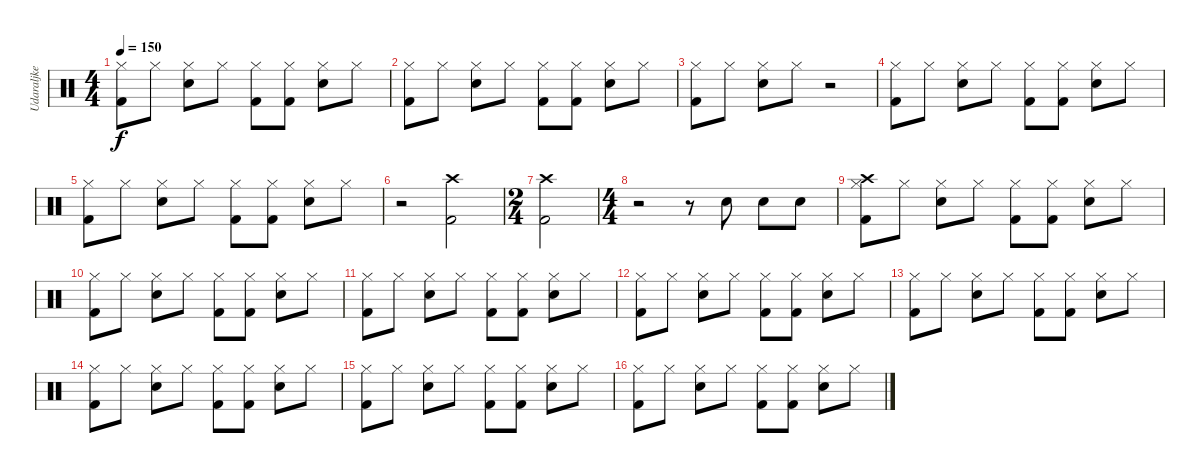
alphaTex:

\track ("Udaraljke" "Udaraljke") {instrument percussion}
\staff {score}
\articulation defaults
\ts (4 4)
\tempo 150
\clef neutral
\ks c
("Hi-Hat (closed)" "Kick (hit) 2").8{dy f} "Hi-Hat (closed)".8 ("Hi-Hat (closed)" "Snare (hit) 2").8 "Hi-Hat (closed)".8 ("Hi-Hat (closed)" "Kick (hit) 2").8 ("Hi-Hat (closed)" "Kick (hit) 2").8 ("Hi-Hat (closed)" "Snare (hit) 2").8 "Hi-Hat (closed)".8 |
("Hi-Hat (closed)" "Kick (hit) 2").8 "Hi-Hat (closed)".8 ("Hi-Hat (closed)" "Snare (hit) 2").8 "Hi-Hat (closed)".8 ("Hi-Hat (closed)" "Kick (hit) 2").8 ("Hi-Hat (closed)" "Kick (hit) 2").8 ("Hi-Hat (closed)" "Snare (hit) 2").8 "Hi-Hat (closed)".8 |
("Hi-Hat (closed)" "Kick (hit) 2").8 "Hi-Hat (closed)".8 ("Hi-Hat (closed)" "Snare (hit) 2").8 "Hi-Hat (closed)".8 r.2 |
("Hi-Hat (closed)" "Kick (hit) 2").8 "Hi-Hat (closed)".8 ("Hi-Hat (closed)" "Snare (hit) 2").8 "Hi-Hat (closed)".8 ("Hi-Hat (closed)" "Kick (hit) 2").8 ("Hi-Hat (closed)" "Kick (hit) 2").8 ("Hi-Hat (closed)" "Snare (hit) 2").8 "Hi-Hat (closed)".8 |
("Hi-Hat (closed)" "Kick (hit) 2").8 "Hi-Hat (closed)".8 ("Hi-Hat (closed)" "Snare (hit) 2").8 "Hi-Hat (closed)".8 ("Hi-Hat (closed)" "Kick (hit) 2").8 ("Hi-Hat (closed)" "Kick (hit) 2").8 ("Hi-Hat (closed)" "Snare (hit) 2").8 "Hi-Hat (closed)".8 |
r.2 ("Kick (hit) 2" "Crash high (hit)").2 |
\ts (2 4)
("Crash high (hit)" "Kick (hit) 2").2 |
\ts (4 4)
r.2 r.8 "Snare (hit) 2".8 "Snare (hit) 2".8 "Snare (hit) 2".8 |
("Crash high (hit)" "Kick (hit) 2" "Hi-Hat (closed)").8 "Hi-Hat (closed)".8 ("Snare (hit) 2" "Hi-Hat (closed)").8 "Hi-Hat (closed)".8 ("Kick (hit) 2" "Hi-Hat (closed)").8 ("Kick (hit) 2" "Hi-Hat (closed)").8 ("Snare (hit) 2" "Hi-Hat (closed)").8 "Hi-Hat (closed)".8 |
("Hi-Hat (closed)" "Kick (hit) 2").8 "Hi-Hat (closed)".8 ("Hi-Hat (closed)" "Snare (hit) 2").8 "Hi-Hat (closed)".8 ("Hi-Hat (closed)" "Kick (hit) 2").8 ("Hi-Hat (closed)" "Kick (hit) 2").8 ("Hi-Hat (closed)" "Snare (hit) 2").8 "Hi-Hat (closed)".8 |
("Hi-Hat (closed)" "Kick (hit) 2").8 "Hi-Hat (closed)".8 ("Hi-Hat (closed)" "Snare (hit) 2").8 "Hi-Hat (closed)".8 ("Hi-Hat (closed)" "Kick (hit) 2").8 ("Hi-Hat (closed)" "Kick (hit) 2").8 ("Hi-Hat (closed)" "Snare (hit) 2").8 "Hi-Hat (closed)".8 |
("Hi-Hat (closed)" "Kick (hit) 2").8 "Hi-Hat (closed)".8 ("Hi-Hat (closed)" "Snare (hit) 2").8 "Hi-Hat (closed)".8 ("Hi-Hat (closed)" "Kick (hit) 2").8 ("Hi-Hat (closed)" "Kick (hit) 2").8 ("Hi-Hat (closed)" "Snare (hit) 2").8 "Hi-Hat (closed)".8 |
("Hi-Hat (closed)" "Kick (hit) 2").8 "Hi-Hat (closed)".8 ("Hi-Hat (closed)" "Snare (hit) 2").8 "Hi-Hat (closed)".8 ("Hi-Hat (closed)" "Kick (hit) 2").8 ("Hi-Hat (closed)" "Kick (hit) 2").8 ("Hi-Hat (closed)" "Snare (hit) 2").8 "Hi-Hat (closed)".8 |
("Hi-Hat (closed)" "Kick (hit) 2").8 "Hi-Hat (closed)".8 ("Hi-Hat (closed)" "Snare (hit) 2").8 "Hi-Hat (closed)".8 ("Hi-Hat (closed)" "Kick (hit) 2").8 ("Hi-Hat (closed)" "Kick (hit) 2").8 ("Hi-Hat (closed)" "Snare (hit) 2").8 "Hi-Hat (closed)".8 |
("Hi-Hat (closed)" "Kick (hit) 2").8 "Hi-Hat (closed)".8 ("Hi-Hat (closed)" "Snare (hit) 2").8 "Hi-Hat (closed)".8 ("Hi-Hat (closed)" "Kick (hit) 2").8 ("Hi-Hat (closed)" "Kick (hit) 2").8 ("Hi-Hat (closed)" "Snare (hit) 2").8 "Hi-Hat (closed)".8 |
("Hi-Hat (closed)" "Kick (hit) 2").8 "Hi-Hat (closed)".8 ("Hi-Hat (closed)" "Snare (hit) 2").8 "Hi-Hat (closed)".8 ("Hi-Hat (closed)" "Kick (hit) 2").8 ("Hi-Hat (closed)" "Kick (hit) 2").8 ("Hi-Hat (closed)" "Snare (hit) 2").8 "Hi-Hat (closed)".8
